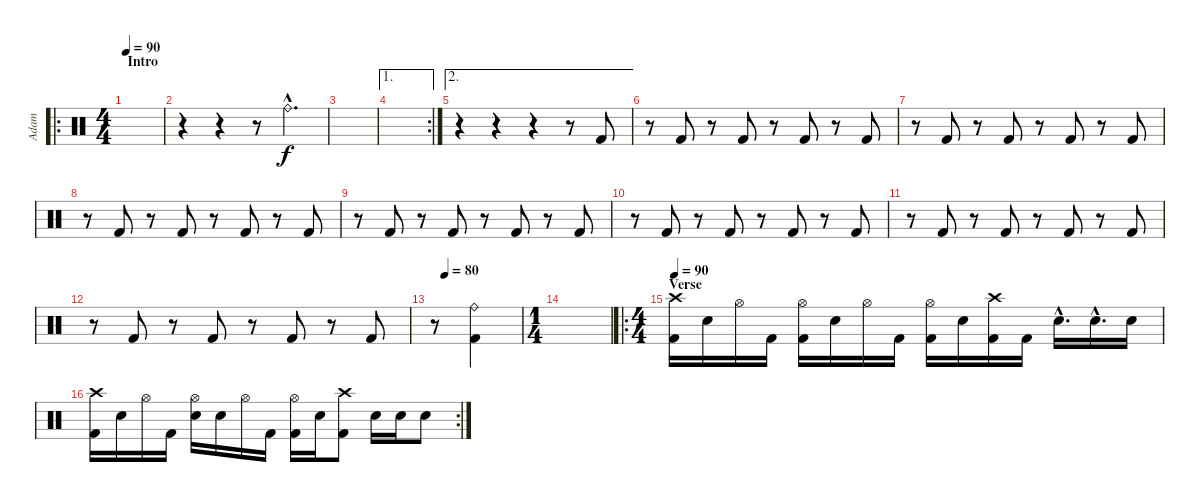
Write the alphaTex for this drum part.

\track ("Adam" "Adam") {instrument percussion}
\staff {score}
\articulation defaults
\ro
\ts (4 4)
\section ("" "Intro")
\tempo 90
\tempo 130
\tempo 90
\clef neutral
\ks c
|
r.4 r.4 r.8 "Ride (bell)"{hac}.4{d} |
|
\ae 1
\rc 2
|
\ae 2
r.4 r.4 r.4 r.8 "Kick (hit) 2".8{dy f} |
r.8 "Kick (hit) 2".8 r.8 "Kick (hit) 2".8 r.8 "Kick (hit) 2".8 r.8 "Kick (hit) 2".8 |
r.8 "Kick (hit) 2".8 r.8 "Kick (hit) 2".8 r.8 "Kick (hit) 2".8 r.8 "Kick (hit) 2".8 |
r.8 "Kick (hit) 2".8 r.8 "Kick (hit) 2".8 r.8 "Kick (hit) 2".8 r.8 "Kick (hit) 2".8 |
r.8 "Kick (hit) 2".8 r.8 "Kick (hit) 2".8 r.8 "Kick (hit) 2".8 r.8 "Kick (hit) 2".8 |
r.8 "Kick (hit) 2".8 r.8 "Kick (hit) 2".8 r.8 "Kick (hit) 2".8 r.8 "Kick (hit) 2".8 |
r.8 "Kick (hit) 2".8 r.8 "Kick (hit) 2".8 r.8 "Kick (hit) 2".8 r.8 "Kick (hit) 2".8 |
r.8 "Kick (hit) 2".8 r.8 "Kick (hit) 2".8 r.8 "Kick (hit) 2".8 r.8 "Kick (hit) 2".8 |
\tempo (80 0.125)
r.8 ("Ride (bell)" "Kick (hit) 2").4 |
\ts (1 4)
|
\ro
\ts (4 4)
\section ("" "Verse")
\tempo 90
("Crash high (hit)" "Kick (hit) 2").16 "Electric Snare (hit)".16 "Hi-Hat (open)".16 "Kick (hit) 2".16 ("Hi-Hat (open)" "Kick (hit) 2").16 "Electric Snare (hit)".16 "Hi-Hat (open)".16 "Kick (hit) 2".16 ("Hi-Hat (open)" "Kick (hit) 2").16 "Electric Snare (hit)".16 ("Crash high (hit)" "Kick (hit) 2").16 "Kick (hit) 2".16 "Electric Snare (hit)"{hac}.16{d} "Electric Snare (hit)"{hac}.16{d} "Electric Snare (hit)".16 |
\rc 2
("Crash high (hit)" "Kick (hit) 2").16 "Electric Snare (hit)".16 "Hi-Hat (open)".16 "Kick (hit) 2".16 ("Hi-Hat (open)" "Electric Snare (hit)").16 "Electric Snare (hit)".16 "Hi-Hat (open)".16 "Kick (hit) 2".16 ("Hi-Hat (open)" "Kick (hit) 2").16 "Electric Snare (hit)".16 ("Crash high (hit)" "Kick (hit) 2").8 "Electric Snare (hit)".16 "Electric Snare (hit)".16 "Electric Snare (hit)".8
